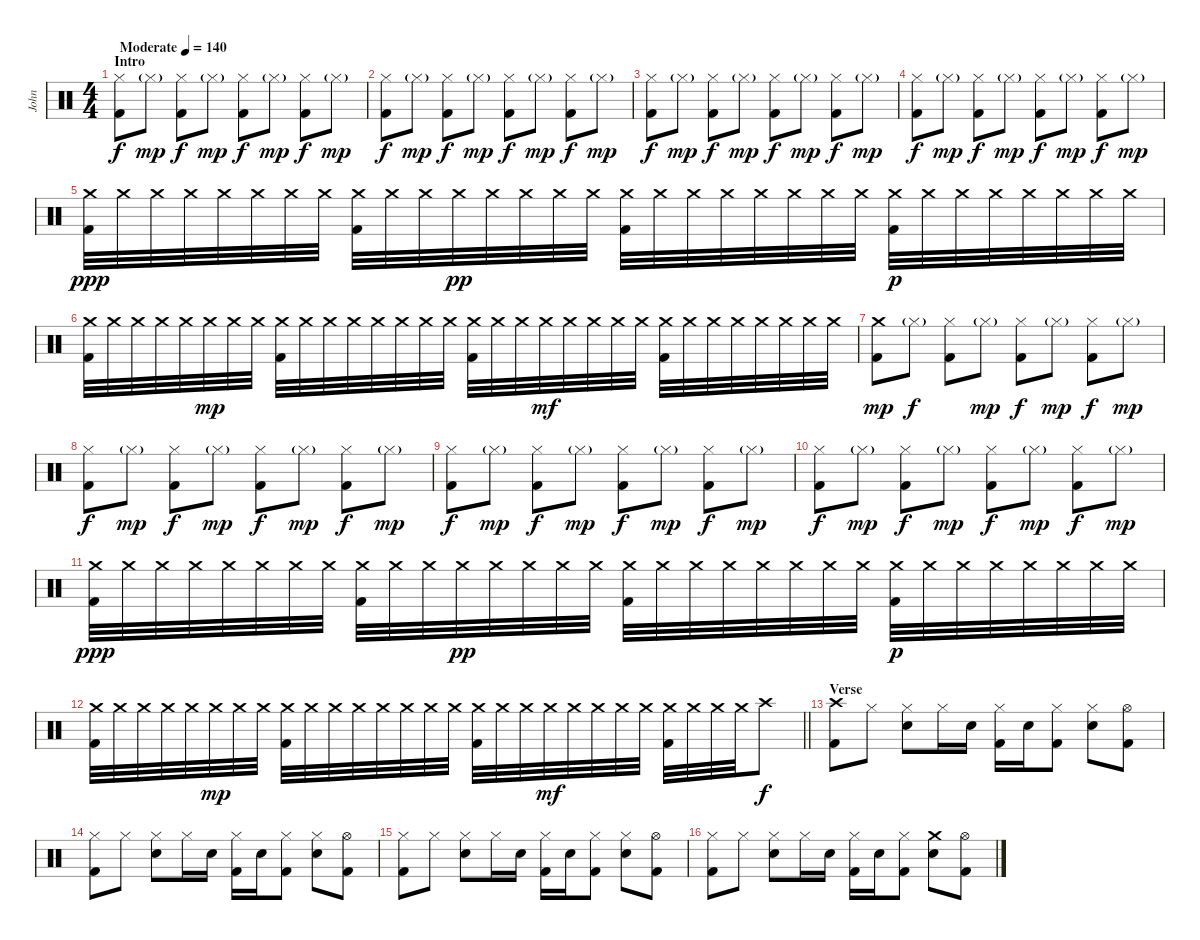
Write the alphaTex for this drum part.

\track ("John" "John") {instrument percussion}
\staff {score}
\articulation defaults
\ts (4 4)
\section ("" "Intro")
\tempo (140 "Moderate")
\clef neutral
\ks c
("Hi-Hat (closed)" "Kick (hit) 2").8{dy f} "Hi-Hat (closed)"{g}.8{dy mp} ("Hi-Hat (closed)" "Kick (hit) 2").8{dy f} "Hi-Hat (closed)"{g}.8{dy mp} ("Hi-Hat (closed)" "Kick (hit) 2").8{dy f} "Hi-Hat (closed)"{g}.8{dy mp} ("Hi-Hat (closed)" "Kick (hit) 2").8{dy f} "Hi-Hat (closed)"{g}.8{dy mp} |
("Hi-Hat (closed)" "Kick (hit) 2").8{dy f} "Hi-Hat (closed)"{g}.8{dy mp} ("Hi-Hat (closed)" "Kick (hit) 2").8{dy f} "Hi-Hat (closed)"{g}.8{dy mp} ("Hi-Hat (closed)" "Kick (hit) 2").8{dy f} "Hi-Hat (closed)"{g}.8{dy mp} ("Hi-Hat (closed)" "Kick (hit) 2").8{dy f} "Hi-Hat (closed)"{g}.8{dy mp} |
("Hi-Hat (closed)" "Kick (hit) 2").8{dy f} "Hi-Hat (closed)"{g}.8{dy mp} ("Hi-Hat (closed)" "Kick (hit) 2").8{dy f} "Hi-Hat (closed)"{g}.8{dy mp} ("Hi-Hat (closed)" "Kick (hit) 2").8{dy f} "Hi-Hat (closed)"{g}.8{dy mp} ("Hi-Hat (closed)" "Kick (hit) 2").8{dy f} "Hi-Hat (closed)"{g}.8{dy mp} |
("Hi-Hat (closed)" "Kick (hit) 2").8{dy f} "Hi-Hat (closed)"{g}.8{dy mp} ("Hi-Hat (closed)" "Kick (hit) 2").8{dy f} "Hi-Hat (closed)"{g}.8{dy mp} ("Hi-Hat (closed)" "Kick (hit) 2").8{dy f} "Hi-Hat (closed)"{g}.8{dy mp} ("Hi-Hat (closed)" "Kick (hit) 2").8{dy f} "Hi-Hat (closed)"{g}.8{dy mp} |
("Crash medium (hit)" "Kick (hit) 2").32{dy ppp} "Crash medium (hit)".32 "Crash medium (hit)".32 "Crash medium (hit)".32 "Crash medium (hit)".32 "Crash medium (hit)".32 "Crash medium (hit)".32 "Crash medium (hit)".32 ("Crash medium (hit)" "Kick (hit) 2").32 "Crash medium (hit)".32 "Crash medium (hit)".32 "Crash medium (hit)".32{dy pp} "Crash medium (hit)".32 "Crash medium (hit)".32 "Crash medium (hit)".32 "Crash medium (hit)".32 ("Crash medium (hit)" "Kick (hit) 2").32 "Crash medium (hit)".32 "Crash medium (hit)".32 "Crash medium (hit)".32 "Crash medium (hit)".32 "Crash medium (hit)".32 "Crash medium (hit)".32 "Crash medium (hit)".32 ("Crash medium (hit)" "Kick (hit) 2").32{dy p} "Crash medium (hit)".32 "Crash medium (hit)".32 "Crash medium (hit)".32 "Crash medium (hit)".32 "Crash medium (hit)".32 "Crash medium (hit)".32 "Crash medium (hit)".32 |
("Crash medium (hit)" "Kick (hit) 2").32 "Crash medium (hit)".32 "Crash medium (hit)".32 "Crash medium (hit)".32 "Crash medium (hit)".32 "Crash medium (hit)".32{dy mp} "Crash medium (hit)".32 "Crash medium (hit)".32 ("Crash medium (hit)" "Kick (hit) 2").32 "Crash medium (hit)".32 "Crash medium (hit)".32 "Crash medium (hit)".32 "Crash medium (hit)".32 "Crash medium (hit)".32 "Crash medium (hit)".32 "Crash medium (hit)".32 ("Crash medium (hit)" "Kick (hit) 2").32 "Crash medium (hit)".32 "Crash medium (hit)".32 "Crash medium (hit)".32{dy mf} "Crash medium (hit)".32 "Crash medium (hit)".32 "Crash medium (hit)".32 "Crash medium (hit)".32 ("Crash medium (hit)" "Kick (hit) 2").32 "Crash medium (hit)".32 "Crash medium (hit)".32 "Crash medium (hit)".32 "Crash medium (hit)".32 "Crash medium (hit)".32 "Crash medium (hit)".32 "Crash medium (hit)".32 |
("Crash medium (hit)" "Kick (hit) 2").8{dy mp} "Hi-Hat (closed)"{g}.8{dy f} ("Hi-Hat (closed)" "Kick (hit) 2").8 "Hi-Hat (closed)"{g}.8{dy mp} ("Hi-Hat (closed)" "Kick (hit) 2").8{dy f} "Hi-Hat (closed)"{g}.8{dy mp} ("Hi-Hat (closed)" "Kick (hit) 2").8{dy f} "Hi-Hat (closed)"{g}.8{dy mp} |
("Hi-Hat (closed)" "Kick (hit) 2").8{dy f} "Hi-Hat (closed)"{g}.8{dy mp} ("Hi-Hat (closed)" "Kick (hit) 2").8{dy f} "Hi-Hat (closed)"{g}.8{dy mp} ("Hi-Hat (closed)" "Kick (hit) 2").8{dy f} "Hi-Hat (closed)"{g}.8{dy mp} ("Hi-Hat (closed)" "Kick (hit) 2").8{dy f} "Hi-Hat (closed)"{g}.8{dy mp} |
("Hi-Hat (closed)" "Kick (hit) 2").8{dy f} "Hi-Hat (closed)"{g}.8{dy mp} ("Hi-Hat (closed)" "Kick (hit) 2").8{dy f} "Hi-Hat (closed)"{g}.8{dy mp} ("Hi-Hat (closed)" "Kick (hit) 2").8{dy f} "Hi-Hat (closed)"{g}.8{dy mp} ("Hi-Hat (closed)" "Kick (hit) 2").8{dy f} "Hi-Hat (closed)"{g}.8{dy mp} |
("Hi-Hat (closed)" "Kick (hit) 2").8{dy f} "Hi-Hat (closed)"{g}.8{dy mp} ("Hi-Hat (closed)" "Kick (hit) 2").8{dy f} "Hi-Hat (closed)"{g}.8{dy mp} ("Hi-Hat (closed)" "Kick (hit) 2").8{dy f} "Hi-Hat (closed)"{g}.8{dy mp} ("Hi-Hat (closed)" "Kick (hit) 2").8{dy f} "Hi-Hat (closed)"{g}.8{dy mp} |
("Crash medium (hit)" "Kick (hit) 2").32{dy ppp} "Crash medium (hit)".32 "Crash medium (hit)".32 "Crash medium (hit)".32 "Crash medium (hit)".32 "Crash medium (hit)".32 "Crash medium (hit)".32 "Crash medium (hit)".32 ("Crash medium (hit)" "Kick (hit) 2").32 "Crash medium (hit)".32 "Crash medium (hit)".32 "Crash medium (hit)".32{dy pp} "Crash medium (hit)".32 "Crash medium (hit)".32 "Crash medium (hit)".32 "Crash medium (hit)".32 ("Crash medium (hit)" "Kick (hit) 2").32 "Crash medium (hit)".32 "Crash medium (hit)".32 "Crash medium (hit)".32 "Crash medium (hit)".32 "Crash medium (hit)".32 "Crash medium (hit)".32 "Crash medium (hit)".32 ("Crash medium (hit)" "Kick (hit) 2").32{dy p} "Crash medium (hit)".32 "Crash medium (hit)".32 "Crash medium (hit)".32 "Crash medium (hit)".32 "Crash medium (hit)".32 "Crash medium (hit)".32 "Crash medium (hit)".32 |
\barLineRight lightlight
("Crash medium (hit)" "Kick (hit) 2").32 "Crash medium (hit)".32 "Crash medium (hit)".32 "Crash medium (hit)".32 "Crash medium (hit)".32 "Crash medium (hit)".32{dy mp} "Crash medium (hit)".32 "Crash medium (hit)".32 ("Crash medium (hit)" "Kick (hit) 2").32 "Crash medium (hit)".32 "Crash medium (hit)".32 "Crash medium (hit)".32 "Crash medium (hit)".32 "Crash medium (hit)".32 "Crash medium (hit)".32 "Crash medium (hit)".32 ("Crash medium (hit)" "Kick (hit) 2").32 "Crash medium (hit)".32 "Crash medium (hit)".32 "Crash medium (hit)".32{dy mf} "Crash medium (hit)".32 "Crash medium (hit)".32 "Crash medium (hit)".32 "Crash medium (hit)".32 ("Crash medium (hit)" "Kick (hit) 2").32 "Crash medium (hit)".32 "Crash medium (hit)".32 "Crash medium (hit)".32 "Crash high (hit)".8{dy f} |
\section ("" "Verse")
("Crash high (hit)" "Kick (hit) 2").8 "Hi-Hat (closed)".8 ("Hi-Hat (closed)" "Electric Snare (hit)").8 "Hi-Hat (closed)".16 "Electric Snare (hit)".16 ("Hi-Hat (closed)" "Kick (hit) 2").16 "Electric Snare (hit)".16 ("Hi-Hat (closed)" "Kick (hit) 2").8 ("Hi-Hat (closed)" "Electric Snare (hit)").8 ("Hi-Hat (open)" "Kick (hit) 2").8 |
("Hi-Hat (closed)" "Kick (hit) 2").8 "Hi-Hat (closed)".8 ("Hi-Hat (closed)" "Electric Snare (hit)").8 "Hi-Hat (closed)".16 "Electric Snare (hit)".16 ("Hi-Hat (closed)" "Kick (hit) 2").16 "Electric Snare (hit)".16 ("Hi-Hat (closed)" "Kick (hit) 2").8 ("Hi-Hat (closed)" "Electric Snare (hit)").8 ("Hi-Hat (open)" "Kick (hit) 2").8 |
("Hi-Hat (closed)" "Kick (hit) 2").8 "Hi-Hat (closed)".8 ("Hi-Hat (closed)" "Electric Snare (hit)").8 "Hi-Hat (closed)".16 "Electric Snare (hit)".16 ("Hi-Hat (closed)" "Kick (hit) 2").16 "Electric Snare (hit)".16 ("Hi-Hat (closed)" "Kick (hit) 2").8 ("Hi-Hat (closed)" "Electric Snare (hit)").8 ("Hi-Hat (open)" "Kick (hit) 2").8 |
("Hi-Hat (closed)" "Kick (hit) 2").8 "Hi-Hat (closed)".8 ("Hi-Hat (closed)" "Electric Snare (hit)").8 "Hi-Hat (closed)".16 "Electric Snare (hit)".16 ("Hi-Hat (closed)" "Kick (hit) 2").16 "Electric Snare (hit)".16 ("Hi-Hat (closed)" "Kick (hit) 2").8 ("Crash medium (hit)" "Electric Snare (hit)").8 ("Hi-Hat (open)" "Kick (hit) 2").8
